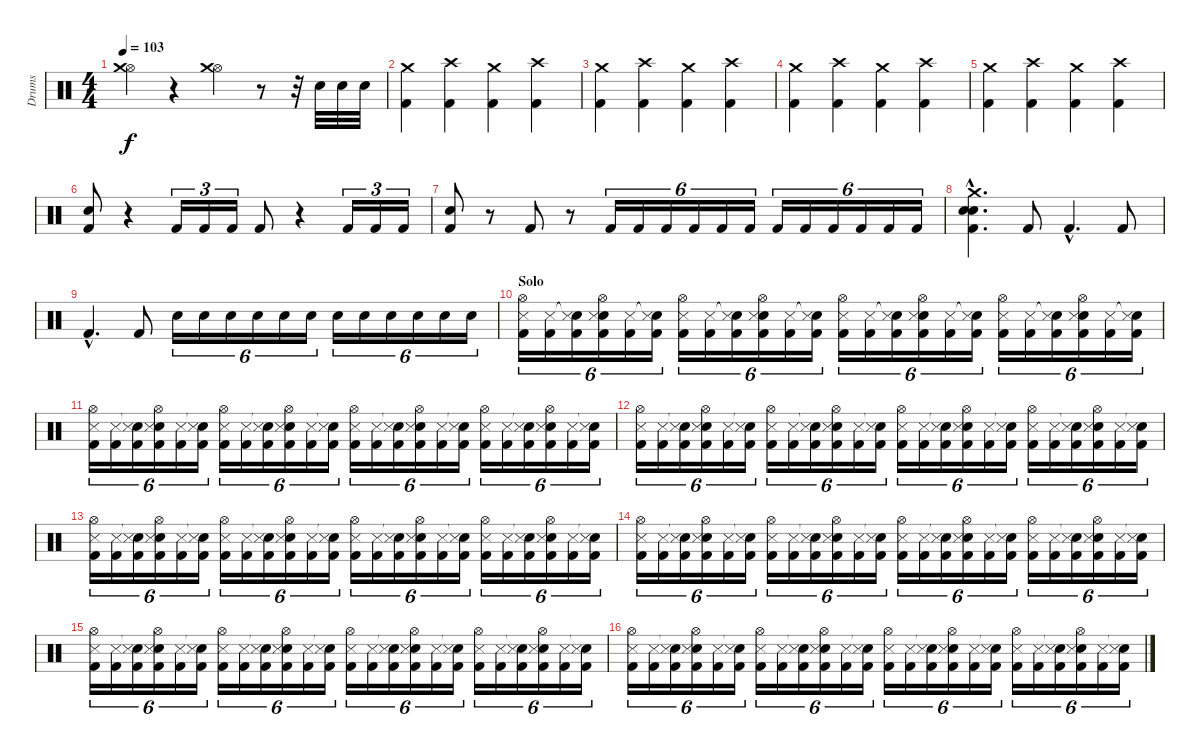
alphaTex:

\track ("Drums" "Drums") {instrument percussion}
\staff {score}
\articulation defaults
\ts (4 4)
\tempo 103
\clef neutral
\ks c
("Hi-Hat (open)" "Crash medium (hit)").4{dy f} r.4 ("Hi-Hat (open)" "Crash medium (hit)").4 r.8 r.32 "Electric Snare (hit)".32 "Electric Snare (hit)".32 "Electric Snare (hit)".32 |
("Crash medium (hit)" "Kick (hit) 2").4 ("Crash high (hit)" "Kick (hit) 2").4 ("Crash medium (hit)" "Kick (hit) 2").4 ("Crash high (hit)" "Kick (hit) 2").4 |
("Crash medium (hit)" "Kick (hit) 2").4 ("Crash high (hit)" "Kick (hit) 2").4 ("Crash medium (hit)" "Kick (hit) 2").4 ("Crash high (hit)" "Kick (hit) 2").4 |
("Crash medium (hit)" "Kick (hit) 2").4 ("Crash high (hit)" "Kick (hit) 2").4 ("Crash medium (hit)" "Kick (hit) 2").4 ("Crash high (hit)" "Kick (hit) 2").4 |
("Crash medium (hit)" "Kick (hit) 2").4 ("Crash high (hit)" "Kick (hit) 2").4 ("Crash medium (hit)" "Kick (hit) 2").4 ("Crash high (hit)" "Kick (hit) 2").4 |
("Electric Snare (hit)" "Kick (hit) 2").8 r.4 "Kick (hit) 2".16{tu (3 2)} "Kick (hit) 2".16{tu (3 2)} "Kick (hit) 2".16{tu (3 2)} "Kick (hit) 2".8 r.4 "Kick (hit) 2".16{tu (3 2)} "Kick (hit) 2".16{tu (3 2)} "Kick (hit) 2".16{tu (3 2)} |
("Electric Snare (hit)" "Kick (hit) 2").8 r.8 "Kick (hit) 2".8 r.8 "Kick (hit) 2".16{tu (6 4)} "Kick (hit) 2".16{tu (6 4)} "Kick (hit) 2".16{tu (6 4)} "Kick (hit) 2".16{tu (6 4)} "Kick (hit) 2".16{tu (6 4)} "Kick (hit) 2".16{tu (6 4)} "Kick (hit) 2".16{tu (6 4)} "Kick (hit) 2".16{tu (6 4)} "Kick (hit) 2".16{tu (6 4)} "Kick (hit) 2".16{tu (6 4)} "Kick (hit) 2".16{tu (6 4)} "Kick (hit) 2".16{tu (6 4)} |
("Snare (hit) 2"{hac} "Electric Snare (hit)"{hac} "Crash medium (hit)"{hac} "Kick (hit) 2"{hac}).4{d} "Kick (hit) 2".8 "Kick (hit) 2"{hac}.4{d} "Kick (hit) 2".8 |
"Kick (hit) 2"{hac}.4{d} "Kick (hit) 2".8 "Electric Snare (hit)".16{tu (6 4)} "Electric Snare (hit)".16{tu (6 4)} "Electric Snare (hit)".16{tu (6 4)} "Electric Snare (hit)".16{tu (6 4)} "Electric Snare (hit)".16{tu (6 4)} "Electric Snare (hit)".16{tu (6 4)} "Electric Snare (hit)".16{tu (6 4)} "Electric Snare (hit)".16{tu (6 4)} "Electric Snare (hit)".16{tu (6 4)} "Snare (hit) 2".16{tu (6 4)} "Snare (hit) 2".16{tu (6 4)} "Snare (hit) 2".16{tu (6 4)} |
\section ("" "Solo")
("Hi-Hat (open)" "Snare (side stick) 3" "Kick (hit) 2").16{tu (6 4)} ("Snare (side stick) 3" "Kick (hit) 2").16{tu (6 4)} ("Snare (hit)"{t} "Snare (side stick) 3" "Kick (hit) 2").16{tu (6 4)} ("Hi-Hat (open)" "Electric Snare (hit)" "Snare (side stick) 3" "Kick (hit) 2").16{tu (6 4)} ("Snare (side stick) 3" "Kick (hit) 2").16{tu (6 4)} ("Snare (hit)"{t} "Snare (side stick) 3" "Kick (hit) 2").16{tu (6 4)} ("Hi-Hat (open)" "Snare (side stick) 3" "Kick (hit) 2").16{tu (6 4)} ("Snare (side stick) 3" "Kick (hit) 2").16{tu (6 4)} ("Snare (hit)"{t} "Snare (side stick) 3" "Kick (hit) 2").16{tu (6 4)} ("Hi-Hat (open)" "Electric Snare (hit)" "Snare (side stick) 3" "Kick (hit) 2").16{tu (6 4)} ("Snare (side stick) 3" "Kick (hit) 2").16{tu (6 4)} ("Snare (hit)"{t} "Snare (side stick) 3" "Kick (hit) 2").16{tu (6 4)} ("Hi-Hat (open)" "Snare (side stick) 3" "Kick (hit) 2").16{tu (6 4)} ("Snare (side stick) 3" "Kick (hit) 2").16{tu (6 4)} ("Snare (hit)"{t} "Snare (side stick) 3" "Kick (hit) 2").16{tu (6 4)} ("Hi-Hat (open)" "Electric Snare (hit)" "Snare (side stick) 3" "Kick (hit) 2").16{tu (6 4)} ("Snare (side stick) 3" "Kick (hit) 2").16{tu (6 4)} ("Snare (hit)"{t} "Snare (side stick) 3" "Kick (hit) 2").16{tu (6 4)} ("Hi-Hat (open)" "Snare (side stick) 3" "Kick (hit) 2").16{tu (6 4)} ("Snare (side stick) 3" "Kick (hit) 2").16{tu (6 4)} ("Snare (hit)"{t} "Snare (side stick) 3" "Kick (hit) 2").16{tu (6 4)} ("Hi-Hat (open)" "Electric Snare (hit)" "Snare (side stick) 3" "Kick (hit) 2").16{tu (6 4)} ("Snare (side stick) 3" "Kick (hit) 2").16{tu (6 4)} ("Snare (hit)"{t} "Snare (side stick) 3" "Kick (hit) 2").16{tu (6 4)} |
("Hi-Hat (open)" "Snare (side stick) 3" "Kick (hit) 2").16{tu (6 4)} ("Snare (side stick) 3" "Kick (hit) 2").16{tu (6 4)} ("Snare (hit)"{t} "Snare (side stick) 3" "Kick (hit) 2").16{tu (6 4)} ("Hi-Hat (open)" "Electric Snare (hit)" "Snare (side stick) 3" "Kick (hit) 2").16{tu (6 4)} ("Snare (side stick) 3" "Kick (hit) 2").16{tu (6 4)} ("Snare (hit)"{t} "Snare (side stick) 3" "Kick (hit) 2").16{tu (6 4)} ("Hi-Hat (open)" "Snare (side stick) 3" "Kick (hit) 2").16{tu (6 4)} ("Snare (side stick) 3" "Kick (hit) 2").16{tu (6 4)} ("Snare (hit)"{t} "Snare (side stick) 3" "Kick (hit) 2").16{tu (6 4)} ("Hi-Hat (open)" "Electric Snare (hit)" "Snare (side stick) 3" "Kick (hit) 2").16{tu (6 4)} ("Snare (side stick) 3" "Kick (hit) 2").16{tu (6 4)} ("Snare (hit)"{t} "Snare (side stick) 3" "Kick (hit) 2").16{tu (6 4)} ("Hi-Hat (open)" "Snare (side stick) 3" "Kick (hit) 2").16{tu (6 4)} ("Snare (side stick) 3" "Kick (hit) 2").16{tu (6 4)} ("Snare (hit)"{t} "Snare (side stick) 3" "Kick (hit) 2").16{tu (6 4)} ("Hi-Hat (open)" "Electric Snare (hit)" "Snare (side stick) 3" "Kick (hit) 2").16{tu (6 4)} ("Snare (side stick) 3" "Kick (hit) 2").16{tu (6 4)} ("Snare (hit)"{t} "Snare (side stick) 3" "Kick (hit) 2").16{tu (6 4)} ("Hi-Hat (open)" "Snare (side stick) 3" "Kick (hit) 2").16{tu (6 4)} ("Snare (side stick) 3" "Kick (hit) 2").16{tu (6 4)} ("Snare (hit)"{t} "Snare (side stick) 3" "Kick (hit) 2").16{tu (6 4)} ("Hi-Hat (open)" "Electric Snare (hit)" "Snare (side stick) 3" "Kick (hit) 2").16{tu (6 4)} ("Snare (side stick) 3" "Kick (hit) 2").16{tu (6 4)} ("Snare (hit)"{t} "Snare (side stick) 3" "Kick (hit) 2").16{tu (6 4)} |
("Hi-Hat (open)" "Snare (side stick) 3" "Kick (hit) 2").16{tu (6 4)} ("Snare (side stick) 3" "Kick (hit) 2").16{tu (6 4)} ("Snare (hit)"{t} "Snare (side stick) 3" "Kick (hit) 2").16{tu (6 4)} ("Hi-Hat (open)" "Electric Snare (hit)" "Snare (side stick) 3" "Kick (hit) 2").16{tu (6 4)} ("Snare (side stick) 3" "Kick (hit) 2").16{tu (6 4)} ("Snare (hit)"{t} "Snare (side stick) 3" "Kick (hit) 2").16{tu (6 4)} ("Hi-Hat (open)" "Snare (side stick) 3" "Kick (hit) 2").16{tu (6 4)} ("Snare (side stick) 3" "Kick (hit) 2").16{tu (6 4)} ("Snare (hit)"{t} "Snare (side stick) 3" "Kick (hit) 2").16{tu (6 4)} ("Hi-Hat (open)" "Electric Snare (hit)" "Snare (side stick) 3" "Kick (hit) 2").16{tu (6 4)} ("Snare (side stick) 3" "Kick (hit) 2").16{tu (6 4)} ("Snare (hit)"{t} "Snare (side stick) 3" "Kick (hit) 2").16{tu (6 4)} ("Hi-Hat (open)" "Snare (side stick) 3" "Kick (hit) 2").16{tu (6 4)} ("Snare (side stick) 3" "Kick (hit) 2").16{tu (6 4)} ("Snare (hit)"{t} "Snare (side stick) 3" "Kick (hit) 2").16{tu (6 4)} ("Hi-Hat (open)" "Electric Snare (hit)" "Snare (side stick) 3" "Kick (hit) 2").16{tu (6 4)} ("Snare (side stick) 3" "Kick (hit) 2").16{tu (6 4)} ("Snare (hit)"{t} "Snare (side stick) 3" "Kick (hit) 2").16{tu (6 4)} ("Hi-Hat (open)" "Snare (side stick) 3" "Kick (hit) 2").16{tu (6 4)} ("Snare (side stick) 3" "Kick (hit) 2").16{tu (6 4)} ("Snare (hit)"{t} "Snare (side stick) 3" "Kick (hit) 2").16{tu (6 4)} ("Hi-Hat (open)" "Electric Snare (hit)" "Snare (side stick) 3" "Kick (hit) 2").16{tu (6 4)} ("Snare (side stick) 3" "Kick (hit) 2").16{tu (6 4)} ("Snare (hit)"{t} "Snare (side stick) 3" "Kick (hit) 2").16{tu (6 4)} |
("Hi-Hat (open)" "Snare (side stick) 3" "Kick (hit) 2").16{tu (6 4)} ("Snare (side stick) 3" "Kick (hit) 2").16{tu (6 4)} ("Snare (hit)"{t} "Snare (side stick) 3" "Kick (hit) 2").16{tu (6 4)} ("Hi-Hat (open)" "Electric Snare (hit)" "Snare (side stick) 3" "Kick (hit) 2").16{tu (6 4)} ("Snare (side stick) 3" "Kick (hit) 2").16{tu (6 4)} ("Snare (hit)"{t} "Snare (side stick) 3" "Kick (hit) 2").16{tu (6 4)} ("Hi-Hat (open)" "Snare (side stick) 3" "Kick (hit) 2").16{tu (6 4)} ("Snare (side stick) 3" "Kick (hit) 2").16{tu (6 4)} ("Snare (hit)"{t} "Snare (side stick) 3" "Kick (hit) 2").16{tu (6 4)} ("Hi-Hat (open)" "Electric Snare (hit)" "Snare (side stick) 3" "Kick (hit) 2").16{tu (6 4)} ("Snare (side stick) 3" "Kick (hit) 2").16{tu (6 4)} ("Snare (hit)"{t} "Snare (side stick) 3" "Kick (hit) 2").16{tu (6 4)} ("Hi-Hat (open)" "Snare (side stick) 3" "Kick (hit) 2").16{tu (6 4)} ("Snare (side stick) 3" "Kick (hit) 2").16{tu (6 4)} ("Snare (hit)"{t} "Snare (side stick) 3" "Kick (hit) 2").16{tu (6 4)} ("Hi-Hat (open)" "Electric Snare (hit)" "Snare (side stick) 3" "Kick (hit) 2").16{tu (6 4)} ("Snare (side stick) 3" "Kick (hit) 2").16{tu (6 4)} ("Snare (hit)"{t} "Snare (side stick) 3" "Kick (hit) 2").16{tu (6 4)} ("Hi-Hat (open)" "Snare (side stick) 3" "Kick (hit) 2").16{tu (6 4)} ("Snare (side stick) 3" "Kick (hit) 2").16{tu (6 4)} ("Snare (hit)"{t} "Snare (side stick) 3" "Kick (hit) 2").16{tu (6 4)} ("Hi-Hat (open)" "Electric Snare (hit)" "Snare (side stick) 3" "Kick (hit) 2").16{tu (6 4)} ("Snare (side stick) 3" "Kick (hit) 2").16{tu (6 4)} ("Snare (hit)"{t} "Snare (side stick) 3" "Kick (hit) 2").16{tu (6 4)} |
("Hi-Hat (open)" "Snare (side stick) 3" "Kick (hit) 2").16{tu (6 4)} ("Snare (side stick) 3" "Kick (hit) 2").16{tu (6 4)} ("Snare (hit)"{t} "Snare (side stick) 3" "Kick (hit) 2").16{tu (6 4)} ("Hi-Hat (open)" "Electric Snare (hit)" "Snare (side stick) 3" "Kick (hit) 2").16{tu (6 4)} ("Snare (side stick) 3" "Kick (hit) 2").16{tu (6 4)} ("Snare (hit)"{t} "Snare (side stick) 3" "Kick (hit) 2").16{tu (6 4)} ("Hi-Hat (open)" "Snare (side stick) 3" "Kick (hit) 2").16{tu (6 4)} ("Snare (side stick) 3" "Kick (hit) 2").16{tu (6 4)} ("Snare (hit)"{t} "Snare (side stick) 3" "Kick (hit) 2").16{tu (6 4)} ("Hi-Hat (open)" "Electric Snare (hit)" "Snare (side stick) 3" "Kick (hit) 2").16{tu (6 4)} ("Snare (side stick) 3" "Kick (hit) 2").16{tu (6 4)} ("Snare (hit)"{t} "Snare (side stick) 3" "Kick (hit) 2").16{tu (6 4)} ("Hi-Hat (open)" "Snare (side stick) 3" "Kick (hit) 2").16{tu (6 4)} ("Snare (side stick) 3" "Kick (hit) 2").16{tu (6 4)} ("Snare (hit)"{t} "Snare (side stick) 3" "Kick (hit) 2").16{tu (6 4)} ("Hi-Hat (open)" "Electric Snare (hit)" "Snare (side stick) 3" "Kick (hit) 2").16{tu (6 4)} ("Snare (side stick) 3" "Kick (hit) 2").16{tu (6 4)} ("Snare (hit)"{t} "Snare (side stick) 3" "Kick (hit) 2").16{tu (6 4)} ("Hi-Hat (open)" "Snare (side stick) 3" "Kick (hit) 2").16{tu (6 4)} ("Snare (side stick) 3" "Kick (hit) 2").16{tu (6 4)} ("Snare (hit)"{t} "Snare (side stick) 3" "Kick (hit) 2").16{tu (6 4)} ("Hi-Hat (open)" "Electric Snare (hit)" "Snare (side stick) 3" "Kick (hit) 2").16{tu (6 4)} ("Snare (side stick) 3" "Kick (hit) 2").16{tu (6 4)} ("Snare (hit)"{t} "Snare (side stick) 3" "Kick (hit) 2").16{tu (6 4)} |
("Hi-Hat (open)" "Snare (side stick) 3" "Kick (hit) 2").16{tu (6 4)} ("Snare (side stick) 3" "Kick (hit) 2").16{tu (6 4)} ("Snare (hit)"{t} "Snare (side stick) 3" "Kick (hit) 2").16{tu (6 4)} ("Hi-Hat (open)" "Electric Snare (hit)" "Snare (side stick) 3" "Kick (hit) 2").16{tu (6 4)} ("Snare (side stick) 3" "Kick (hit) 2").16{tu (6 4)} ("Snare (hit)"{t} "Snare (side stick) 3" "Kick (hit) 2").16{tu (6 4)} ("Hi-Hat (open)" "Snare (side stick) 3" "Kick (hit) 2").16{tu (6 4)} ("Snare (side stick) 3" "Kick (hit) 2").16{tu (6 4)} ("Snare (hit)"{t} "Snare (side stick) 3" "Kick (hit) 2").16{tu (6 4)} ("Hi-Hat (open)" "Electric Snare (hit)" "Snare (side stick) 3" "Kick (hit) 2").16{tu (6 4)} ("Snare (side stick) 3" "Kick (hit) 2").16{tu (6 4)} ("Snare (hit)"{t} "Snare (side stick) 3" "Kick (hit) 2").16{tu (6 4)} ("Hi-Hat (open)" "Snare (side stick) 3" "Kick (hit) 2").16{tu (6 4)} ("Snare (side stick) 3" "Kick (hit) 2").16{tu (6 4)} ("Snare (hit)"{t} "Snare (side stick) 3" "Kick (hit) 2").16{tu (6 4)} ("Hi-Hat (open)" "Electric Snare (hit)" "Snare (side stick) 3" "Kick (hit) 2").16{tu (6 4)} ("Snare (side stick) 3" "Kick (hit) 2").16{tu (6 4)} ("Snare (hit)"{t} "Snare (side stick) 3" "Kick (hit) 2").16{tu (6 4)} ("Hi-Hat (open)" "Snare (side stick) 3" "Kick (hit) 2").16{tu (6 4)} ("Snare (side stick) 3" "Kick (hit) 2").16{tu (6 4)} ("Snare (hit)"{t} "Snare (side stick) 3" "Kick (hit) 2").16{tu (6 4)} ("Hi-Hat (open)" "Electric Snare (hit)" "Snare (side stick) 3" "Kick (hit) 2").16{tu (6 4)} ("Snare (side stick) 3" "Kick (hit) 2").16{tu (6 4)} ("Snare (hit)"{t} "Snare (side stick) 3" "Kick (hit) 2").16{tu (6 4)} |
("Hi-Hat (open)" "Snare (side stick) 3" "Kick (hit) 2").16{tu (6 4)} ("Snare (side stick) 3" "Kick (hit) 2").16{tu (6 4)} ("Snare (hit)"{t} "Snare (side stick) 3" "Kick (hit) 2").16{tu (6 4)} ("Hi-Hat (open)" "Electric Snare (hit)" "Snare (side stick) 3" "Kick (hit) 2").16{tu (6 4)} ("Snare (side stick) 3" "Kick (hit) 2").16{tu (6 4)} ("Snare (hit)"{t} "Snare (side stick) 3" "Kick (hit) 2").16{tu (6 4)} ("Hi-Hat (open)" "Snare (side stick) 3" "Kick (hit) 2").16{tu (6 4)} ("Snare (side stick) 3" "Kick (hit) 2").16{tu (6 4)} ("Snare (hit)"{t} "Snare (side stick) 3" "Kick (hit) 2").16{tu (6 4)} ("Hi-Hat (open)" "Electric Snare (hit)" "Snare (side stick) 3" "Kick (hit) 2").16{tu (6 4)} ("Snare (side stick) 3" "Kick (hit) 2").16{tu (6 4)} ("Snare (hit)"{t} "Snare (side stick) 3" "Kick (hit) 2").16{tu (6 4)} ("Hi-Hat (open)" "Snare (side stick) 3" "Kick (hit) 2").16{tu (6 4)} ("Snare (side stick) 3" "Kick (hit) 2").16{tu (6 4)} ("Snare (hit)"{t} "Snare (side stick) 3" "Kick (hit) 2").16{tu (6 4)} ("Hi-Hat (open)" "Electric Snare (hit)" "Snare (side stick) 3" "Kick (hit) 2").16{tu (6 4)} ("Snare (side stick) 3" "Kick (hit) 2").16{tu (6 4)} ("Snare (hit)"{t} "Snare (side stick) 3" "Kick (hit) 2").16{tu (6 4)} ("Hi-Hat (open)" "Snare (side stick) 3" "Kick (hit) 2").16{tu (6 4)} ("Snare (side stick) 3" "Kick (hit) 2").16{tu (6 4)} ("Snare (hit)"{t} "Snare (side stick) 3" "Kick (hit) 2").16{tu (6 4)} ("Hi-Hat (open)" "Electric Snare (hit)" "Snare (side stick) 3" "Kick (hit) 2").16{tu (6 4)} ("Snare (side stick) 3" "Kick (hit) 2").16{tu (6 4)} ("Snare (hit)"{t} "Snare (side stick) 3" "Kick (hit) 2").16{tu (6 4)}
